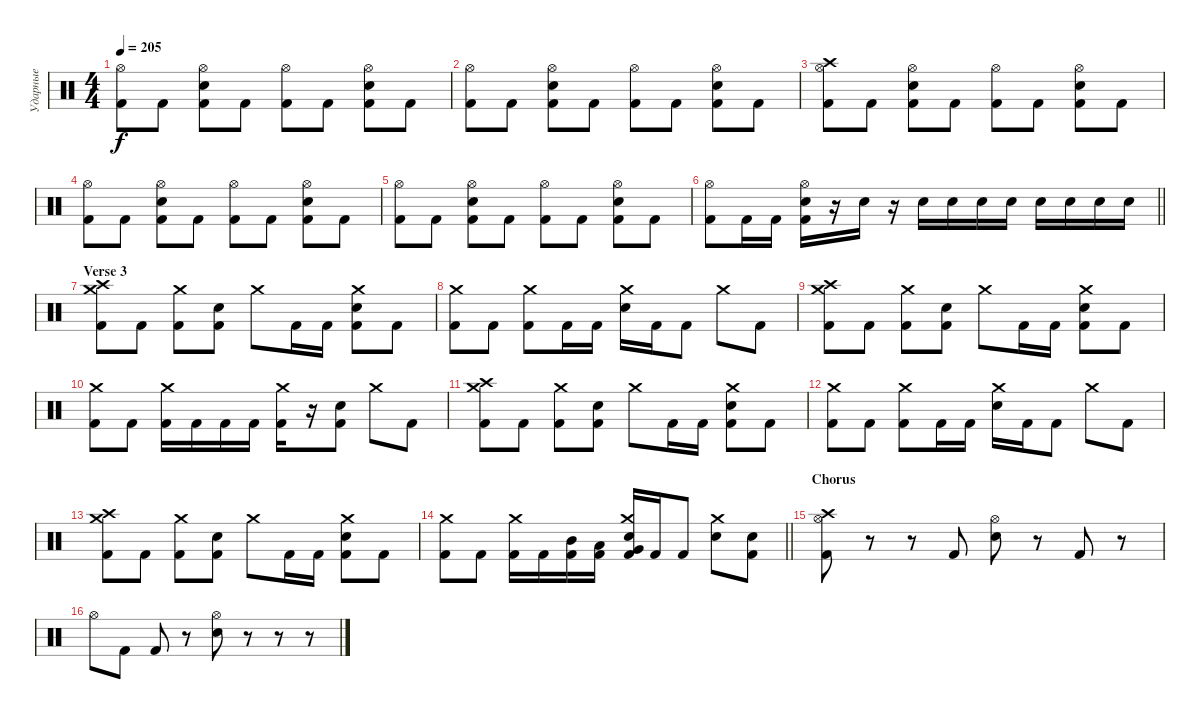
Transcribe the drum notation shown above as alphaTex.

\track ("Ударные" "Ударные") {instrument percussion}
\staff {score}
\articulation defaults
\ts (4 4)
\tempo 205
\clef neutral
\ks c
("Hi-Hat (open)" "Kick (hit) 2").8{dy f} "Kick (hit) 2".8 ("Hi-Hat (open)" "Snare (hit) 2" "Kick (hit) 2").8 "Kick (hit) 2".8 ("Hi-Hat (open)" "Kick (hit) 2").8 "Kick (hit) 2".8 ("Hi-Hat (open)" "Snare (hit) 2" "Kick (hit) 2").8 "Kick (hit) 2".8 |
("Hi-Hat (open)" "Kick (hit) 2").8 "Kick (hit) 2".8 ("Hi-Hat (open)" "Snare (hit) 2" "Kick (hit) 2").8 "Kick (hit) 2".8 ("Hi-Hat (open)" "Kick (hit) 2").8 "Kick (hit) 2".8 ("Hi-Hat (open)" "Snare (hit) 2" "Kick (hit) 2").8 "Kick (hit) 2".8 |
("Hi-Hat (open)" "Crash high (hit)" "Kick (hit) 2").8 "Kick (hit) 2".8 ("Hi-Hat (open)" "Snare (hit) 2" "Kick (hit) 2").8 "Kick (hit) 2".8 ("Hi-Hat (open)" "Kick (hit) 2").8 "Kick (hit) 2".8 ("Hi-Hat (open)" "Snare (hit) 2" "Kick (hit) 2").8 "Kick (hit) 2".8 |
("Hi-Hat (open)" "Kick (hit) 2").8 "Kick (hit) 2".8 ("Hi-Hat (open)" "Snare (hit) 2" "Kick (hit) 2").8 "Kick (hit) 2".8 ("Hi-Hat (open)" "Kick (hit) 2").8 "Kick (hit) 2".8 ("Hi-Hat (open)" "Snare (hit) 2" "Kick (hit) 2").8 "Kick (hit) 2".8 |
("Hi-Hat (open)" "Kick (hit) 2").8 "Kick (hit) 2".8 ("Hi-Hat (open)" "Snare (hit) 2" "Kick (hit) 2").8 "Kick (hit) 2".8 ("Hi-Hat (open)" "Kick (hit) 2").8 "Kick (hit) 2".8 ("Hi-Hat (open)" "Snare (hit) 2" "Kick (hit) 2").8 "Kick (hit) 2".8 |
\barLineRight lightlight
("Hi-Hat (open)" "Kick (hit) 2").8 "Kick (hit) 2".16 "Kick (hit) 2".16 ("Hi-Hat (open)" "Snare (hit) 2" "Kick (hit) 2").16 r.16 "Snare (hit) 2".16 r.16 "Snare (hit) 2".16 "Snare (hit) 2".16 "Snare (hit) 2".16 "Snare (hit) 2".16 "Snare (hit) 2".16 "Snare (hit) 2".16 "Snare (hit) 2".16 "Snare (hit) 2".16 |
\section ("" "Verse 3")
("Crash medium (hit)" "Crash high (hit)" "Kick (hit) 2").8 "Kick (hit) 2".8 ("Crash medium (hit)" "Kick (hit) 2").8 ("Snare (hit) 2" "Kick (hit) 2").8 "Crash medium (hit)".8 "Kick (hit) 2".16 "Kick (hit) 2".16 ("Crash medium (hit)" "Snare (hit) 2" "Kick (hit) 2").8 "Kick (hit) 2".8 |
("Crash medium (hit)" "Kick (hit) 2").8 "Kick (hit) 2".8 ("Crash medium (hit)" "Kick (hit) 2").8 "Kick (hit) 2".16 "Kick (hit) 2".16 ("Crash medium (hit)" "Snare (hit) 2").16 "Kick (hit) 2".16 "Kick (hit) 2".8 "Crash medium (hit)".8 "Kick (hit) 2".8 |
("Crash medium (hit)" "Crash high (hit)" "Kick (hit) 2").8 "Kick (hit) 2".8 ("Crash medium (hit)" "Kick (hit) 2").8 ("Snare (hit) 2" "Kick (hit) 2").8 "Crash medium (hit)".8 "Kick (hit) 2".16 "Kick (hit) 2".16 ("Crash medium (hit)" "Snare (hit) 2" "Kick (hit) 2").8 "Kick (hit) 2".8 |
("Crash medium (hit)" "Kick (hit) 2").8 "Kick (hit) 2".8 ("Crash medium (hit)" "Kick (hit) 2").16 "Kick (hit) 2".16 "Kick (hit) 2".16 "Kick (hit) 2".16 ("Crash medium (hit)" "Kick (hit) 2").16 r.16 ("Snare (hit) 2" "Kick (hit) 2").8 "Crash medium (hit)".8 "Kick (hit) 2".8 |
("Crash medium (hit)" "Crash high (hit)" "Kick (hit) 2").8 "Kick (hit) 2".8 ("Crash medium (hit)" "Kick (hit) 2").8 ("Snare (hit) 2" "Kick (hit) 2").8 "Crash medium (hit)".8 "Kick (hit) 2".16 "Kick (hit) 2".16 ("Crash medium (hit)" "Snare (hit) 2" "Kick (hit) 2").8 "Kick (hit) 2".8 |
("Crash medium (hit)" "Kick (hit) 2").8 "Kick (hit) 2".8 ("Crash medium (hit)" "Kick (hit) 2").8 "Kick (hit) 2".16 "Kick (hit) 2".16 ("Crash medium (hit)" "Snare (hit) 2").16 "Kick (hit) 2".16 "Kick (hit) 2".8 "Crash medium (hit)".8 "Kick (hit) 2".8 |
("Crash medium (hit)" "Crash high (hit)" "Kick (hit) 2").8 "Kick (hit) 2".8 ("Crash medium (hit)" "Kick (hit) 2").8 ("Snare (hit) 2" "Kick (hit) 2").8 "Crash medium (hit)".8 "Kick (hit) 2".16 "Kick (hit) 2".16 ("Crash medium (hit)" "Snare (hit) 2" "Kick (hit) 2").8 "Kick (hit) 2".8 |
\barLineRight lightlight
("Crash medium (hit)" "Kick (hit) 2").8 "Kick (hit) 2".8 ("Crash medium (hit)" "Kick (hit) 2").16 "Kick (hit) 2".16 ("Mid Tom (hit)" "Kick (hit) 2").16 ("Low Tom (hit)" "Kick (hit) 2").16 ("Crash medium (hit)" "Snare (hit) 2" "Very Low Tom (hit)" "Kick (hit) 2").16 "Kick (hit) 2".16 "Kick (hit) 2".8 ("Crash medium (hit)" "Snare (hit) 2").8 ("Snare (hit) 2" "Kick (hit) 2").8 |
\section ("" "Chorus")
("Hi-Hat (open)" "Crash high (hit)" "Kick (hit) 2").8 r.8 r.8 "Kick (hit) 2".8 ("Hi-Hat (open)" "Snare (hit) 2").8 r.8 "Kick (hit) 2".8 r.8 |
"Hi-Hat (open)".8 "Kick (hit) 2".8 "Kick (hit) 2".8 r.8 ("Hi-Hat (open)" "Snare (hit) 2").8 r.8 r.8 r.8
